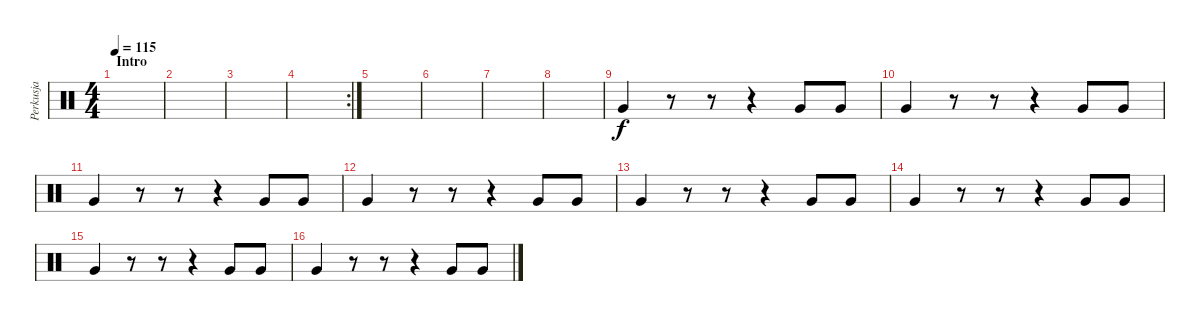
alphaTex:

\track ("Perkusja" "Perkusja") {instrument percussion}
\staff {score}
\articulation defaults
\ts (4 4)
\section ("" "Intro")
\tempo 115
\clef neutral
\ks c
|
|
|
\rc 2
|
|
|
|
|
"Very Low Tom (hit)".4 r.8 r.8 r.4 "Very Low Tom (hit)".8 "Very Low Tom (hit)".8 |
"Very Low Tom (hit)".4 r.8 r.8 r.4 "Very Low Tom (hit)".8 "Very Low Tom (hit)".8 |
"Very Low Tom (hit)".4 r.8 r.8 r.4 "Very Low Tom (hit)".8 "Very Low Tom (hit)".8 |
"Very Low Tom (hit)".4 r.8 r.8 r.4 "Very Low Tom (hit)".8 "Very Low Tom (hit)".8 |
"Very Low Tom (hit)".4 r.8 r.8 r.4 "Very Low Tom (hit)".8 "Very Low Tom (hit)".8 |
"Very Low Tom (hit)".4 r.8 r.8 r.4 "Very Low Tom (hit)".8 "Very Low Tom (hit)".8 |
"Very Low Tom (hit)".4 r.8 r.8 r.4 "Very Low Tom (hit)".8 "Very Low Tom (hit)".8 |
"Very Low Tom (hit)".4 r.8 r.8 r.4 "Very Low Tom (hit)".8 "Very Low Tom (hit)".8
